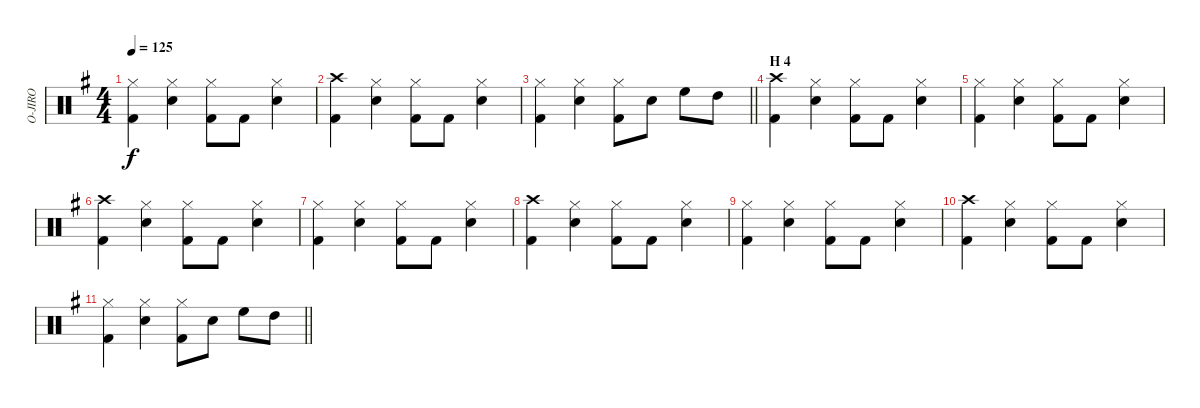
\track ("O-JIRO" "O-JIRO") {instrument percussion}
\staff {score}
\articulation defaults
\ts (4 4)
\tempo 125
\clef neutral
\ks g
("Hi-Hat (closed)" "Kick (hit) 2").4{dy f} ("Hi-Hat (closed)" "Snare (hit) 2").4 ("Hi-Hat (closed)" "Kick (hit) 2").8 "Kick (hit) 2".8 ("Hi-Hat (closed)" "Snare (hit) 2").4 |
("Crash high (hit)" "Kick (hit) 2").4 ("Hi-Hat (closed)" "Snare (hit) 2").4 ("Hi-Hat (closed)" "Kick (hit) 2").8 "Kick (hit) 2".8 ("Hi-Hat (closed)" "Snare (hit) 2").4 |
\barLineRight lightlight
("Hi-Hat (closed)" "Kick (hit) 2").4 ("Hi-Hat (closed)" "Snare (hit) 2").4 ("Hi-Hat (closed)" "Kick (hit) 2").8 "Snare (hit) 2".8 "High Floor Tom (hit)".8 "High Tom (hit)".8 |
\section ("" "H 4")
("Crash high (hit)" "Kick (hit) 2").4 ("Hi-Hat (closed)" "Snare (hit) 2").4 ("Hi-Hat (closed)" "Kick (hit) 2").8 "Kick (hit) 2".8 ("Hi-Hat (closed)" "Snare (hit) 2").4 |
("Hi-Hat (closed)" "Kick (hit) 2").4 ("Hi-Hat (closed)" "Snare (hit) 2").4 ("Hi-Hat (closed)" "Kick (hit) 2").8 "Kick (hit) 2".8 ("Hi-Hat (closed)" "Snare (hit) 2").4 |
("Crash high (hit)" "Kick (hit) 2").4 ("Hi-Hat (closed)" "Snare (hit) 2").4 ("Hi-Hat (closed)" "Kick (hit) 2").8 "Kick (hit) 2".8 ("Hi-Hat (closed)" "Snare (hit) 2").4 |
("Hi-Hat (closed)" "Kick (hit) 2").4 ("Hi-Hat (closed)" "Snare (hit) 2").4 ("Hi-Hat (closed)" "Kick (hit) 2").8 "Kick (hit) 2".8 ("Hi-Hat (closed)" "Snare (hit) 2").4 |
("Crash high (hit)" "Kick (hit) 2").4 ("Hi-Hat (closed)" "Snare (hit) 2").4 ("Hi-Hat (closed)" "Kick (hit) 2").8 "Kick (hit) 2".8 ("Hi-Hat (closed)" "Snare (hit) 2").4 |
("Hi-Hat (closed)" "Kick (hit) 2").4 ("Hi-Hat (closed)" "Snare (hit) 2").4 ("Hi-Hat (closed)" "Kick (hit) 2").8 "Kick (hit) 2".8 ("Hi-Hat (closed)" "Snare (hit) 2").4 |
("Crash high (hit)" "Kick (hit) 2").4 ("Hi-Hat (closed)" "Snare (hit) 2").4 ("Hi-Hat (closed)" "Kick (hit) 2").8 "Kick (hit) 2".8 ("Hi-Hat (closed)" "Snare (hit) 2").4 |
\barLineRight lightlight
("Hi-Hat (closed)" "Kick (hit) 2").4 ("Hi-Hat (closed)" "Snare (hit) 2").4 ("Hi-Hat (closed)" "Kick (hit) 2").8 "Snare (hit) 2".8 "High Floor Tom (hit)".8 "High Tom (hit)".8
